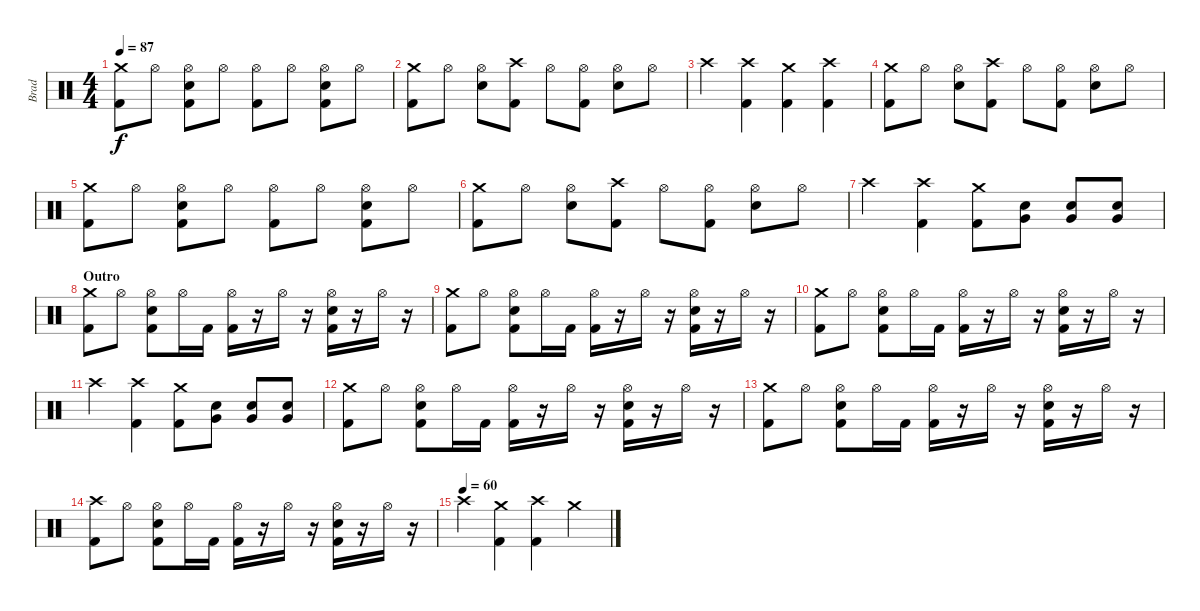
\track ("Brad" "Brad") {instrument percussion}
\staff {score}
\articulation defaults
\ts (4 4)
\tempo 87
\clef neutral
\ks c
("Crash medium (hit)" "Kick (hit) 2").8{dy f} "Hi-Hat (open)".8 ("Hi-Hat (open)" "Electric Snare (hit)" "Kick (hit) 2").8 "Hi-Hat (open)".8 ("Hi-Hat (open)" "Kick (hit) 2").8 "Hi-Hat (open)".8 ("Hi-Hat (open)" "Electric Snare (hit)" "Kick (hit) 2").8 "Hi-Hat (open)".8 |
("Crash medium (hit)" "Kick (hit) 2").8 "Hi-Hat (open)".8 ("Hi-Hat (open)" "Electric Snare (hit)").8 ("Crash high (hit)" "Kick (hit) 2").8 "Hi-Hat (open)".8 ("Hi-Hat (open)" "Kick (hit) 2").8 ("Hi-Hat (open)" "Electric Snare (hit)").8 "Hi-Hat (open)".8 |
"Crash high (hit)".4 ("Crash high (hit)" "Kick (hit) 2").4 ("Crash medium (hit)" "Kick (hit) 2").4 ("Crash high (hit)" "Kick (hit) 2").4 |
("Crash medium (hit)" "Kick (hit) 2").8 "Hi-Hat (open)".8 ("Hi-Hat (open)" "Electric Snare (hit)").8 ("Crash high (hit)" "Kick (hit) 2").8 "Hi-Hat (open)".8 ("Hi-Hat (open)" "Kick (hit) 2").8 ("Hi-Hat (open)" "Electric Snare (hit)").8 "Hi-Hat (open)".8 |
("Crash medium (hit)" "Kick (hit) 2").8 "Hi-Hat (open)".8 ("Hi-Hat (open)" "Electric Snare (hit)" "Kick (hit) 2").8 "Hi-Hat (open)".8 ("Hi-Hat (open)" "Kick (hit) 2").8 "Hi-Hat (open)".8 ("Hi-Hat (open)" "Electric Snare (hit)" "Kick (hit) 2").8 "Hi-Hat (open)".8 |
("Crash medium (hit)" "Kick (hit) 2").8 "Hi-Hat (open)".8 ("Hi-Hat (open)" "Electric Snare (hit)").8 ("Crash high (hit)" "Kick (hit) 2").8 "Hi-Hat (open)".8 ("Hi-Hat (open)" "Kick (hit) 2").8 ("Hi-Hat (open)" "Electric Snare (hit)").8 "Hi-Hat (open)".8 |
"Crash high (hit)".4 ("Crash high (hit)" "Kick (hit) 2").4 ("Crash medium (hit)" "Kick (hit) 2").8 ("Very Low Tom (hit)" "Electric Snare (hit)").8 ("Very Low Tom (hit)" "Electric Snare (hit)").8 ("Very Low Tom (hit)" "Electric Snare (hit)").8 |
\section ("" "Outro")
("Crash medium (hit)" "Kick (hit) 2").8 "Hi-Hat (open)".8 ("Hi-Hat (open)" "Electric Snare (hit)" "Kick (hit) 2").8 "Hi-Hat (open)".16 "Kick (hit) 2".16 ("Hi-Hat (open)" "Kick (hit) 2").16 r.16 "Hi-Hat (open)".16 r.16 ("Hi-Hat (open)" "Electric Snare (hit)" "Kick (hit) 2").16 r.16 "Hi-Hat (open)".16 r.16 |
("Crash medium (hit)" "Kick (hit) 2").8 "Hi-Hat (open)".8 ("Hi-Hat (open)" "Electric Snare (hit)" "Kick (hit) 2").8 "Hi-Hat (open)".16 "Kick (hit) 2".16 ("Hi-Hat (open)" "Kick (hit) 2").16 r.16 "Hi-Hat (open)".16 r.16 ("Hi-Hat (open)" "Electric Snare (hit)" "Kick (hit) 2").16 r.16 "Hi-Hat (open)".16 r.16 |
("Crash medium (hit)" "Kick (hit) 2").8 "Hi-Hat (open)".8 ("Hi-Hat (open)" "Electric Snare (hit)" "Kick (hit) 2").8 "Hi-Hat (open)".16 "Kick (hit) 2".16 ("Hi-Hat (open)" "Kick (hit) 2").16 r.16 "Hi-Hat (open)".16 r.16 ("Hi-Hat (open)" "Electric Snare (hit)" "Kick (hit) 2").16 r.16 "Hi-Hat (open)".16 r.16 |
"Crash high (hit)".4 ("Crash high (hit)" "Kick (hit) 2").4 ("Crash medium (hit)" "Kick (hit) 2").8 ("Very Low Tom (hit)" "Electric Snare (hit)").8 ("Very Low Tom (hit)" "Electric Snare (hit)").8 ("Very Low Tom (hit)" "Electric Snare (hit)").8 |
("Crash medium (hit)" "Kick (hit) 2").8 "Hi-Hat (open)".8 ("Hi-Hat (open)" "Electric Snare (hit)" "Kick (hit) 2").8 "Hi-Hat (open)".16 "Kick (hit) 2".16 ("Hi-Hat (open)" "Kick (hit) 2").16 r.16 "Hi-Hat (open)".16 r.16 ("Hi-Hat (open)" "Electric Snare (hit)" "Kick (hit) 2").16 r.16 "Hi-Hat (open)".16 r.16 |
("Crash medium (hit)" "Kick (hit) 2").8 "Hi-Hat (open)".8 ("Hi-Hat (open)" "Electric Snare (hit)" "Kick (hit) 2").8 "Hi-Hat (open)".16 "Kick (hit) 2".16 ("Hi-Hat (open)" "Kick (hit) 2").16 r.16 "Hi-Hat (open)".16 r.16 ("Hi-Hat (open)" "Electric Snare (hit)" "Kick (hit) 2").16 r.16 "Hi-Hat (open)".16 r.16 |
("Crash high (hit)" "Kick (hit) 2").8 "Hi-Hat (open)".8 ("Hi-Hat (open)" "Electric Snare (hit)" "Kick (hit) 2").8 "Hi-Hat (open)".16 "Kick (hit) 2".16 ("Hi-Hat (open)" "Kick (hit) 2").16 r.16 "Hi-Hat (open)".16 r.16 ("Hi-Hat (open)" "Electric Snare (hit)" "Kick (hit) 2").16 r.16 "Hi-Hat (open)".16 r.16 |
\tempo (60)
"Crash high (hit)".4 ("Crash medium (hit)" "Kick (hit) 2").4 ("Crash high (hit)" "Kick (hit) 2").4 "Crash medium (hit)".4
